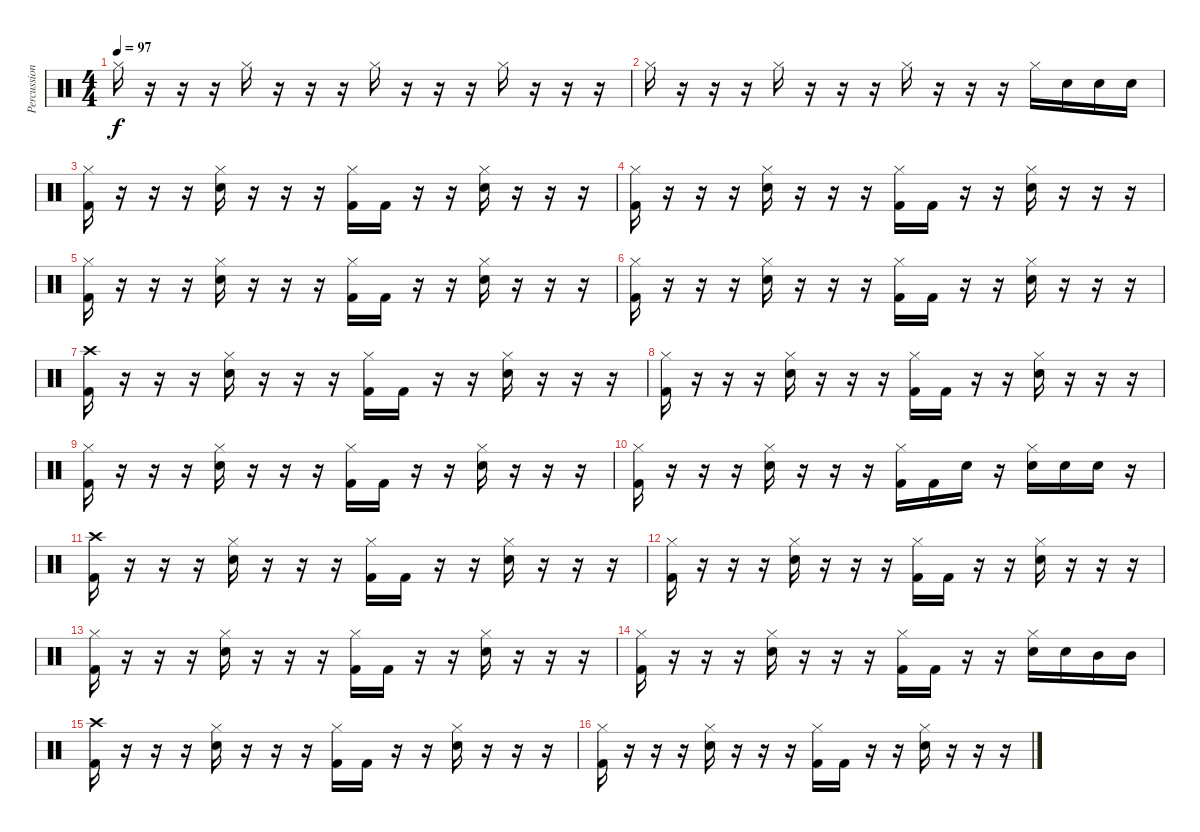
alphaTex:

\track ("Percussion" "Percussion") {instrument percussion}
\staff {score}
\articulation defaults
\ts (4 4)
\tempo 97
\clef neutral
\ks c "Hi-Hat (closed)".16{dy f}
r.16 r.16 r.16 "Hi-Hat (closed)".16 r.16 r.16 r.16 "Hi-Hat (closed)".16 r.16 r.16 r.16 "Hi-Hat (closed)".16 r.16 r.16 r.16 |
"Hi-Hat (closed)".16 r.16 r.16 r.16 "Hi-Hat (closed)".16 r.16 r.16 r.16 "Hi-Hat (closed)".16 r.16 r.16 r.16 "Hi-Hat (closed)".16 "Snare (hit) 2".16 "Snare (hit) 2".16 "Snare (hit) 2".16 |
("Hi-Hat (closed)" "Kick (hit) 2").16 r.16 r.16 r.16 ("Hi-Hat (closed)" "Snare (hit) 2").16 r.16 r.16 r.16 ("Hi-Hat (closed)" "Kick (hit) 2").16 "Kick (hit) 2".16 r.16 r.16 ("Hi-Hat (closed)" "Snare (hit) 2").16 r.16 r.16 r.16 |
("Hi-Hat (closed)" "Kick (hit) 2").16 r.16 r.16 r.16 ("Hi-Hat (closed)" "Snare (hit) 2").16 r.16 r.16 r.16 ("Hi-Hat (closed)" "Kick (hit) 2").16 "Kick (hit) 2".16 r.16 r.16 ("Hi-Hat (closed)" "Snare (hit) 2").16 r.16 r.16 r.16 |
("Hi-Hat (closed)" "Kick (hit) 2").16 r.16 r.16 r.16 ("Hi-Hat (closed)" "Snare (hit) 2").16 r.16 r.16 r.16 ("Hi-Hat (closed)" "Kick (hit) 2").16 "Kick (hit) 2".16 r.16 r.16 ("Hi-Hat (closed)" "Snare (hit) 2").16 r.16 r.16 r.16 |
("Hi-Hat (closed)" "Kick (hit) 2").16 r.16 r.16 r.16 ("Hi-Hat (closed)" "Snare (hit) 2").16 r.16 r.16 r.16 ("Hi-Hat (closed)" "Kick (hit) 2").16 "Kick (hit) 2".16 r.16 r.16 ("Hi-Hat (closed)" "Snare (hit) 2").16 r.16 r.16 r.16 |
("Crash high (hit)" "Kick (hit) 2").16 r.16 r.16 r.16 ("Hi-Hat (closed)" "Snare (hit) 2").16 r.16 r.16 r.16 ("Hi-Hat (closed)" "Kick (hit) 2").16 "Kick (hit) 2".16 r.16 r.16 ("Hi-Hat (closed)" "Snare (hit) 2").16 r.16 r.16 r.16 |
("Hi-Hat (closed)" "Kick (hit) 2").16 r.16 r.16 r.16 ("Hi-Hat (closed)" "Snare (hit) 2").16 r.16 r.16 r.16 ("Hi-Hat (closed)" "Kick (hit) 2").16 "Kick (hit) 2".16 r.16 r.16 ("Hi-Hat (closed)" "Snare (hit) 2").16 r.16 r.16 r.16 |
("Hi-Hat (closed)" "Kick (hit) 2").16 r.16 r.16 r.16 ("Hi-Hat (closed)" "Snare (hit) 2").16 r.16 r.16 r.16 ("Hi-Hat (closed)" "Kick (hit) 2").16 "Kick (hit) 2".16 r.16 r.16 ("Hi-Hat (closed)" "Snare (hit) 2").16 r.16 r.16 r.16 |
("Hi-Hat (closed)" "Kick (hit) 2").16 r.16 r.16 r.16 ("Hi-Hat (closed)" "Snare (hit) 2").16 r.16 r.16 r.16 ("Hi-Hat (closed)" "Kick (hit) 2").16 "Kick (hit) 2".16 "Snare (hit) 2".16 r.16 ("Hi-Hat (closed)" "Snare (hit) 2").16 "Snare (hit) 2".16 "Snare (hit) 2".16 r.16 |
("Crash high (hit)" "Kick (hit) 2").16 r.16 r.16 r.16 ("Hi-Hat (closed)" "Snare (hit) 2").16 r.16 r.16 r.16 ("Hi-Hat (closed)" "Kick (hit) 2").16 "Kick (hit) 2".16 r.16 r.16 ("Hi-Hat (closed)" "Snare (hit) 2").16 r.16 r.16 r.16 |
("Hi-Hat (closed)" "Kick (hit) 2").16 r.16 r.16 r.16 ("Hi-Hat (closed)" "Snare (hit) 2").16 r.16 r.16 r.16 ("Hi-Hat (closed)" "Kick (hit) 2").16 "Kick (hit) 2".16 r.16 r.16 ("Hi-Hat (closed)" "Snare (hit) 2").16 r.16 r.16 r.16 |
("Hi-Hat (closed)" "Kick (hit) 2").16 r.16 r.16 r.16 ("Hi-Hat (closed)" "Snare (hit) 2").16 r.16 r.16 r.16 ("Hi-Hat (closed)" "Kick (hit) 2").16 "Kick (hit) 2".16 r.16 r.16 ("Hi-Hat (closed)" "Snare (hit) 2").16 r.16 r.16 r.16 |
("Hi-Hat (closed)" "Kick (hit) 2").16 r.16 r.16 r.16 ("Hi-Hat (closed)" "Snare (hit) 2").16 r.16 r.16 r.16 ("Hi-Hat (closed)" "Kick (hit) 2").16 "Kick (hit) 2".16 r.16 r.16 ("Hi-Hat (closed)" "Snare (hit) 2").16 "Snare (hit) 2".16 "Mid Tom (hit)".16 "Mid Tom (hit)".16 |
("Crash high (hit)" "Kick (hit) 2").16 r.16 r.16 r.16 ("Hi-Hat (closed)" "Snare (hit) 2").16 r.16 r.16 r.16 ("Hi-Hat (closed)" "Kick (hit) 2").16 "Kick (hit) 2".16 r.16 r.16 ("Hi-Hat (closed)" "Snare (hit) 2").16 r.16 r.16 r.16 |
("Hi-Hat (closed)" "Kick (hit) 2").16 r.16 r.16 r.16 ("Hi-Hat (closed)" "Snare (hit) 2").16 r.16 r.16 r.16 ("Hi-Hat (closed)" "Kick (hit) 2").16 "Kick (hit) 2".16 r.16 r.16 ("Hi-Hat (closed)" "Snare (hit) 2").16 r.16 r.16 r.16
